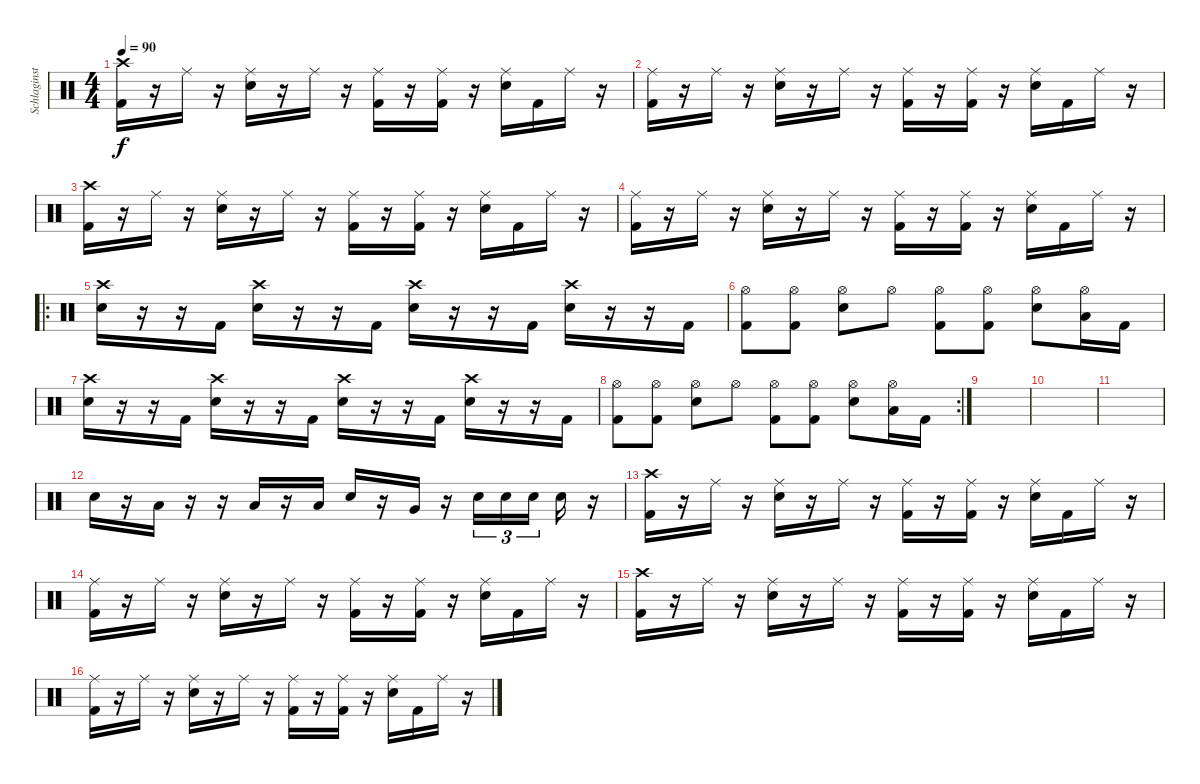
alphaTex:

\track ("Schlaginstrumente - Auswahl" "Schlaginst") {instrument percussion}
\staff {score}
\articulation defaults
\ts (4 4)
\tempo 90
\clef neutral
\ks c
("Crash high (hit)" "Kick (hit) 2").16{dy f} r.16 "Ride (middle)".16 r.16 ("Ride (middle)" "Snare (hit) 2").16 r.16 "Ride (middle)".16 r.16 ("Ride (middle)" "Kick (hit) 2").16 r.16 ("Ride (middle)" "Kick (hit) 2").16 r.16 ("Ride (middle)" "Snare (hit) 2").16 "Kick (hit) 2".16 "Ride (middle)".16 r.16 |
("Ride (middle)" "Kick (hit) 2").16 r.16 "Ride (middle)".16 r.16 ("Ride (middle)" "Snare (hit) 2").16 r.16 "Ride (middle)".16 r.16 ("Ride (middle)" "Kick (hit) 2").16 r.16 ("Ride (middle)" "Kick (hit) 2").16 r.16 ("Ride (middle)" "Snare (hit) 2").16 "Kick (hit) 2".16 "Ride (middle)".16 r.16 |
("Crash high (hit)" "Kick (hit) 2").16 r.16 "Ride (middle)".16 r.16 ("Ride (middle)" "Snare (hit) 2").16 r.16 "Ride (middle)".16 r.16 ("Ride (middle)" "Kick (hit) 2").16 r.16 ("Ride (middle)" "Kick (hit) 2").16 r.16 ("Ride (middle)" "Snare (hit) 2").16 "Kick (hit) 2".16 "Ride (middle)".16 r.16 |
("Ride (middle)" "Kick (hit) 2").16 r.16 "Ride (middle)".16 r.16 ("Ride (middle)" "Snare (hit) 2").16 r.16 "Ride (middle)".16 r.16 ("Ride (middle)" "Kick (hit) 2").16 r.16 ("Ride (middle)" "Kick (hit) 2").16 r.16 ("Ride (middle)" "Snare (hit) 2").16 "Kick (hit) 2".16 "Ride (middle)".16 r.16 |
\ro
("Crash high (hit)" "Snare (hit) 2").16 r.16 r.16 "Kick (hit) 2".16 ("Crash high (hit)" "Snare (hit) 2").16 r.16 r.16 "Kick (hit) 2".16 ("Crash high (hit)" "Snare (hit) 2").16 r.16 r.16 "Kick (hit) 2".16 ("Crash high (hit)" "Snare (hit) 2").16 r.16 r.16 "Kick (hit) 2".16 |
("Hi-Hat (open)" "Kick (hit) 2").8 ("Hi-Hat (open)" "Kick (hit) 2").8 ("Hi-Hat (open)" "Snare (hit) 2").8 "Hi-Hat (open)".8 ("Hi-Hat (open)" "Kick (hit) 2").8 ("Hi-Hat (open)" "Kick (hit) 2").8 ("Hi-Hat (open)" "Snare (hit) 2").8 ("Hi-Hat (open)" "Low Tom (hit)").16 "Kick (hit) 2".16 |
("Crash high (hit)" "Snare (hit) 2").16 r.16 r.16 "Kick (hit) 2".16 ("Crash high (hit)" "Snare (hit) 2").16 r.16 r.16 "Kick (hit) 2".16 ("Crash high (hit)" "Snare (hit) 2").16 r.16 r.16 "Kick (hit) 2".16 ("Crash high (hit)" "Snare (hit) 2").16 r.16 r.16 "Kick (hit) 2".16 |
\rc 2
("Hi-Hat (open)" "Kick (hit) 2").8 ("Hi-Hat (open)" "Kick (hit) 2").8 ("Hi-Hat (open)" "Snare (hit) 2").8 "Hi-Hat (open)".8 ("Hi-Hat (open)" "Kick (hit) 2").8 ("Hi-Hat (open)" "Kick (hit) 2").8 ("Hi-Hat (open)" "Snare (hit) 2").8 ("Hi-Hat (open)" "Low Tom (hit)").16 "Kick (hit) 2".16 |
|
|
|
"Snare (hit) 2".16 r.16 "Low Tom (hit)".16 r.16 r.16 "Low Tom (hit)".16 r.16 "Low Tom (hit)".16 "Snare (hit) 2".16 r.16 "Very Low Tom (hit)".16 r.16 "Snare (hit) 2".16{tu (3 2)} "Snare (hit) 2".16{tu (3 2)} "Snare (hit) 2".16{tu (3 2) beam splitsecondary} "Snare (hit) 2".16 r.16 |
("Crash high (hit)" "Kick (hit) 2").16 r.16 "Ride (middle)".16 r.16 ("Ride (middle)" "Snare (hit) 2").16 r.16 "Ride (middle)".16 r.16 ("Ride (middle)" "Kick (hit) 2").16 r.16 ("Ride (middle)" "Kick (hit) 2").16 r.16 ("Ride (middle)" "Snare (hit) 2").16 "Kick (hit) 2".16 "Ride (middle)".16 r.16 |
("Ride (middle)" "Kick (hit) 2").16 r.16 "Ride (middle)".16 r.16 ("Ride (middle)" "Snare (hit) 2").16 r.16 "Ride (middle)".16 r.16 ("Ride (middle)" "Kick (hit) 2").16 r.16 ("Ride (middle)" "Kick (hit) 2").16 r.16 ("Ride (middle)" "Snare (hit) 2").16 "Kick (hit) 2".16 "Ride (middle)".16 r.16 |
("Crash high (hit)" "Kick (hit) 2").16 r.16 "Ride (middle)".16 r.16 ("Ride (middle)" "Snare (hit) 2").16 r.16 "Ride (middle)".16 r.16 ("Ride (middle)" "Kick (hit) 2").16 r.16 ("Ride (middle)" "Kick (hit) 2").16 r.16 ("Ride (middle)" "Snare (hit) 2").16 "Kick (hit) 2".16 "Ride (middle)".16 r.16 |
("Ride (middle)" "Kick (hit) 2").16 r.16 "Ride (middle)".16 r.16 ("Ride (middle)" "Snare (hit) 2").16 r.16 "Ride (middle)".16 r.16 ("Ride (middle)" "Kick (hit) 2").16 r.16 ("Ride (middle)" "Kick (hit) 2").16 r.16 ("Ride (middle)" "Snare (hit) 2").16 "Kick (hit) 2".16 "Ride (middle)".16 r.16
